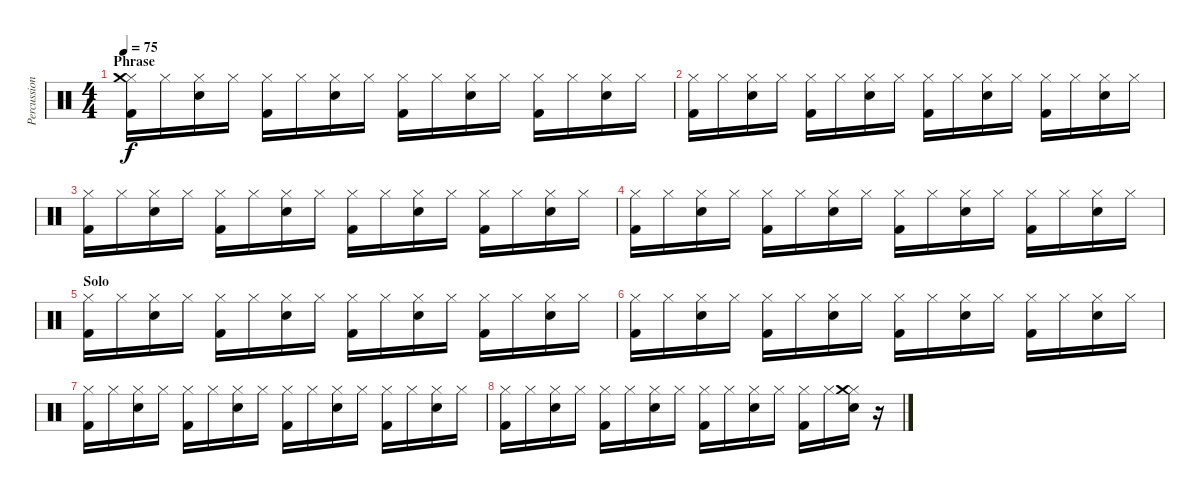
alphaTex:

\track ("Percussions" "Percussion") {instrument percussion}
\staff {score}
\articulation defaults
\ts (4 4)
\section ("" "Phrase")
\tempo 75
\clef neutral
\ks c
("Hi-Hat (closed)" "Crash medium (hit)" "Kick (hit) 2").16{dy f} "Hi-Hat (closed)".16 ("Hi-Hat (closed)" "Electric Snare (hit)").16 "Hi-Hat (closed)".16 ("Hi-Hat (closed)" "Kick (hit) 2").16 "Hi-Hat (closed)".16 ("Hi-Hat (closed)" "Electric Snare (hit)").16 "Hi-Hat (closed)".16 ("Hi-Hat (closed)" "Kick (hit) 2").16 "Hi-Hat (closed)".16 ("Hi-Hat (closed)" "Electric Snare (hit)").16 "Hi-Hat (closed)".16 ("Hi-Hat (closed)" "Kick (hit) 2").16 "Hi-Hat (closed)".16 ("Hi-Hat (closed)" "Electric Snare (hit)").16 "Hi-Hat (closed)".16 |
("Hi-Hat (closed)" "Kick (hit) 2").16 "Hi-Hat (closed)".16 ("Hi-Hat (closed)" "Electric Snare (hit)").16 "Hi-Hat (closed)".16 ("Hi-Hat (closed)" "Kick (hit) 2").16 "Hi-Hat (closed)".16 ("Hi-Hat (closed)" "Electric Snare (hit)").16 "Hi-Hat (closed)".16 ("Hi-Hat (closed)" "Kick (hit) 2").16 "Hi-Hat (closed)".16 ("Hi-Hat (closed)" "Electric Snare (hit)").16 "Hi-Hat (closed)".16 ("Hi-Hat (closed)" "Kick (hit) 2").16 "Hi-Hat (closed)".16 ("Hi-Hat (closed)" "Electric Snare (hit)").16 "Hi-Hat (closed)".16 |
("Hi-Hat (closed)" "Kick (hit) 2").16 "Hi-Hat (closed)".16 ("Hi-Hat (closed)" "Electric Snare (hit)").16 "Hi-Hat (closed)".16 ("Hi-Hat (closed)" "Kick (hit) 2").16 "Hi-Hat (closed)".16 ("Hi-Hat (closed)" "Electric Snare (hit)").16 "Hi-Hat (closed)".16 ("Hi-Hat (closed)" "Kick (hit) 2").16 "Hi-Hat (closed)".16 ("Hi-Hat (closed)" "Electric Snare (hit)").16 "Hi-Hat (closed)".16 ("Hi-Hat (closed)" "Kick (hit) 2").16 "Hi-Hat (closed)".16 ("Hi-Hat (closed)" "Electric Snare (hit)").16 "Hi-Hat (closed)".16 |
("Hi-Hat (closed)" "Kick (hit) 2").16 "Hi-Hat (closed)".16 ("Hi-Hat (closed)" "Electric Snare (hit)").16 "Hi-Hat (closed)".16 ("Hi-Hat (closed)" "Kick (hit) 2").16 "Hi-Hat (closed)".16 ("Hi-Hat (closed)" "Electric Snare (hit)").16 "Hi-Hat (closed)".16 ("Hi-Hat (closed)" "Kick (hit) 2").16 "Hi-Hat (closed)".16 ("Hi-Hat (closed)" "Electric Snare (hit)").16 "Hi-Hat (closed)".16 ("Hi-Hat (closed)" "Kick (hit) 2").16 "Hi-Hat (closed)".16 ("Hi-Hat (closed)" "Electric Snare (hit)").16 "Hi-Hat (closed)".16 |
\section ("" "Solo")
("Hi-Hat (closed)" "Kick (hit) 2").16 "Hi-Hat (closed)".16 ("Hi-Hat (closed)" "Electric Snare (hit)").16 "Hi-Hat (closed)".16 ("Hi-Hat (closed)" "Kick (hit) 2").16 "Hi-Hat (closed)".16 ("Hi-Hat (closed)" "Electric Snare (hit)").16 "Hi-Hat (closed)".16 ("Hi-Hat (closed)" "Kick (hit) 2").16 "Hi-Hat (closed)".16 ("Hi-Hat (closed)" "Electric Snare (hit)").16 "Hi-Hat (closed)".16 ("Hi-Hat (closed)" "Kick (hit) 2").16 "Hi-Hat (closed)".16 ("Hi-Hat (closed)" "Electric Snare (hit)").16 "Hi-Hat (closed)".16 |
("Hi-Hat (closed)" "Kick (hit) 2").16 "Hi-Hat (closed)".16 ("Hi-Hat (closed)" "Electric Snare (hit)").16 "Hi-Hat (closed)".16 ("Hi-Hat (closed)" "Kick (hit) 2").16 "Hi-Hat (closed)".16 ("Hi-Hat (closed)" "Electric Snare (hit)").16 "Hi-Hat (closed)".16 ("Hi-Hat (closed)" "Kick (hit) 2").16 "Hi-Hat (closed)".16 ("Hi-Hat (closed)" "Electric Snare (hit)").16 "Hi-Hat (closed)".16 ("Hi-Hat (closed)" "Kick (hit) 2").16 "Hi-Hat (closed)".16 ("Hi-Hat (closed)" "Electric Snare (hit)").16 "Hi-Hat (closed)".16 |
("Hi-Hat (closed)" "Kick (hit) 2").16 "Hi-Hat (closed)".16 ("Hi-Hat (closed)" "Electric Snare (hit)").16 "Hi-Hat (closed)".16 ("Hi-Hat (closed)" "Kick (hit) 2").16 "Hi-Hat (closed)".16 ("Hi-Hat (closed)" "Electric Snare (hit)").16 "Hi-Hat (closed)".16 ("Hi-Hat (closed)" "Kick (hit) 2").16 "Hi-Hat (closed)".16 ("Hi-Hat (closed)" "Electric Snare (hit)").16 "Hi-Hat (closed)".16 ("Hi-Hat (closed)" "Kick (hit) 2").16 "Hi-Hat (closed)".16 ("Hi-Hat (closed)" "Electric Snare (hit)").16 "Hi-Hat (closed)".16 |
("Hi-Hat (closed)" "Kick (hit) 2").16 "Hi-Hat (closed)".16 ("Hi-Hat (closed)" "Electric Snare (hit)").16 "Hi-Hat (closed)".16 ("Hi-Hat (closed)" "Kick (hit) 2").16 "Hi-Hat (closed)".16 ("Hi-Hat (closed)" "Electric Snare (hit)").16 "Hi-Hat (closed)".16 ("Hi-Hat (closed)" "Kick (hit) 2").16 "Hi-Hat (closed)".16 ("Hi-Hat (closed)" "Electric Snare (hit)").16 "Hi-Hat (closed)".16 ("Hi-Hat (closed)" "Kick (hit) 2").16 "Hi-Hat (closed)".16 ("Hi-Hat (closed)" "Crash medium (hit)" "Electric Snare (hit)").16 r.16
